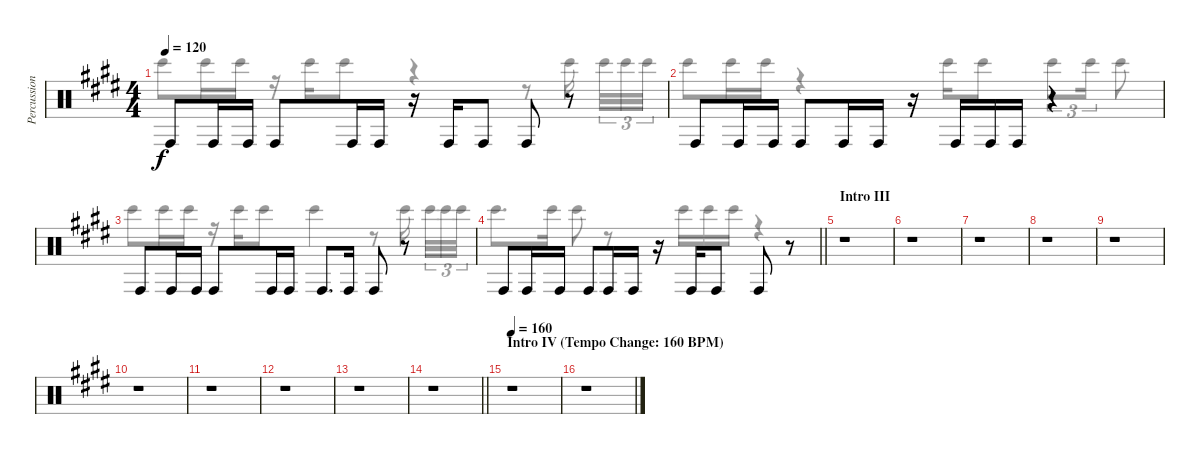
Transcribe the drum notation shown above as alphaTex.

\track ("Percussion IV" "Percussion") {instrument percussion}
\staff {score}
\articulation defaults
\voice
\ts (4 4)
\tempo 120
\clef neutral
\ks e "Conga high (hit)".8{dy f} "Conga high (hit)".16 "Conga high (hit)".16 "Conga high (hit)".8 "Conga high (hit)".16 "Conga high (hit)".16
r.16 "Conga high (hit)".16 "Conga high (hit)".8 "Conga high (hit)".8 r.8 |
"Conga high (hit)".8 "Conga high (hit)".16 "Conga high (hit)".16 "Conga high (hit)".8 "Conga high (hit)".16 "Conga high (hit)".16 r.16 "Conga high (hit)".16 "Conga high (hit)".16 "Conga high (hit)".16 r.4 |
"Conga high (hit)".8 "Conga high (hit)".16 "Conga high (hit)".16 "Conga high (hit)".8 "Conga high (hit)".16 "Conga high (hit)".16 "Conga high (hit)".8{d} "Conga high (hit)".16 "Conga high (hit)".8 r.8 |
\barLineRight lightlight "Conga high (hit)".8 "Conga high (hit)".16 "Conga high (hit)".16 "Conga high (hit)".8 "Conga high (hit)".16 "Conga high (hit)".16
r.16 "Conga high (hit)".16 "Conga high (hit)".8 "Conga high (hit)".8 r.8 |
\section ("" "Intro III")
r.1 |
r.1 |
r.1 |
r.1 |
r.1 |
r.1 |
r.1 |
r.1 |
r.1 |
\barLineRight lightlight
r.1 |
\section ("" "Intro IV (Tempo Change: 160 BPM)")
\tempo 160
r.1 |
r.1
\voice
\clef neutral
\ottava regular
\simile none
\ks e "Bongo High (hit)".8{dy f} "Bongo High (hit)".16 "Bongo High (hit)".16
r.16 "Bongo High (hit)".16 "Bongo High (hit)".8 r.4 r.8 "Bongo High (hit)".16{beam splitsecondary} "Bongo High (hit)".32{tu (3 2)} "Bongo High (hit)".32{tu (3 2)} "Bongo High (hit)".32{tu (3 2)} |
"Bongo High (hit)".8 "Bongo High (hit)".16 "Bongo High (hit)".16 r.4 r.16 "Bongo High (hit)".16 "Bongo High (hit)".8 "Bongo High (hit)".8{tu (3 2)} "Bongo High (hit)".16{tu (3 2)} "Bongo High (hit)".8 |
"Bongo High (hit)".8 "Bongo High (hit)".16 "Bongo High (hit)".16 r.16 "Bongo High (hit)".16 "Bongo High (hit)".8 "Bongo High (hit)".4 r.8 "Bongo High (hit)".16{beam splitsecondary} "Bongo High (hit)".32{tu (3 2)} "Bongo High (hit)".32{tu (3 2)} "Bongo High (hit)".32{tu (3 2)} |
\barLineRight lightlight "Bongo High (hit)".8{d} "Bongo High (hit)".16 "Bongo High (hit)".8
r.8 r.16 "Bongo High (hit)".16 "Bongo High (hit)".16 "Bongo High (hit)".16 r.4 |
|
|
|
|
|
|
|
|
|
\barLineRight lightlight
|
|
